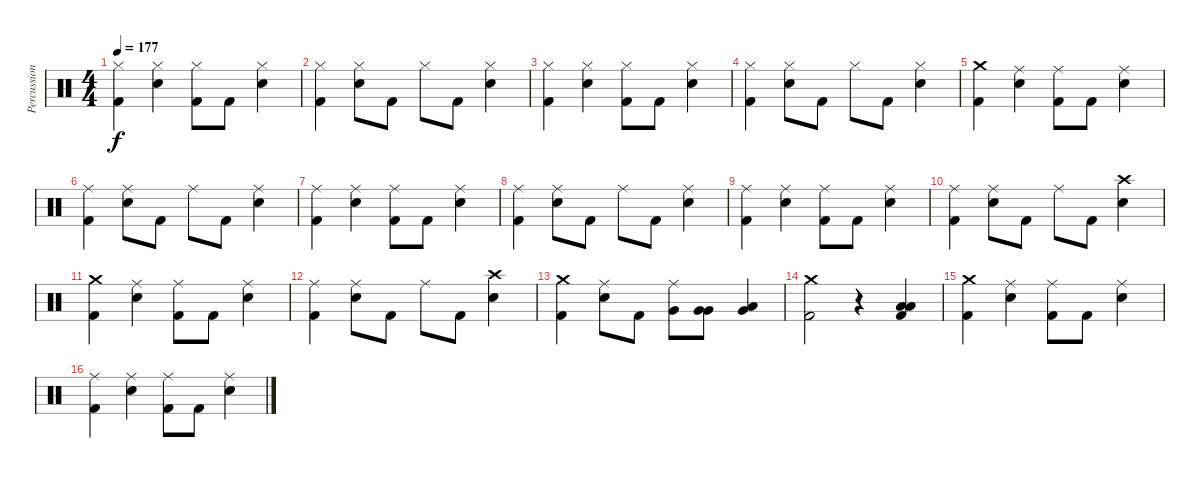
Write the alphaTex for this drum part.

\track ("Percussion" "Percussion") {instrument percussion}
\staff {score}
\articulation defaults
\ts (4 4)
\tempo 177
\clef neutral
\ks c
("Hi-Hat (closed)" "Kick (hit) 2").4{dy f} ("Hi-Hat (closed)" "Electric Snare (hit)").4 ("Hi-Hat (closed)" "Kick (hit) 2").8 "Kick (hit) 2".8 ("Hi-Hat (closed)" "Electric Snare (hit)").4 |
("Hi-Hat (closed)" "Kick (hit) 2").4 ("Hi-Hat (closed)" "Electric Snare (hit)").8 "Kick (hit) 2".8 "Hi-Hat (closed)".8 "Kick (hit) 2".8 ("Hi-Hat (closed)" "Electric Snare (hit)").4 |
("Hi-Hat (closed)" "Kick (hit) 2").4 ("Hi-Hat (closed)" "Electric Snare (hit)").4 ("Hi-Hat (closed)" "Kick (hit) 2").8 "Kick (hit) 2".8 ("Hi-Hat (closed)" "Electric Snare (hit)").4 |
("Hi-Hat (closed)" "Kick (hit) 2").4 ("Hi-Hat (closed)" "Electric Snare (hit)").8 "Kick (hit) 2".8 "Hi-Hat (closed)".8 "Kick (hit) 2".8 ("Hi-Hat (closed)" "Electric Snare (hit)").4 |
("Crash medium (hit)" "Kick (hit) 2").4 ("Ride (middle)" "Electric Snare (hit)").4 ("Ride (middle)" "Kick (hit) 2").8 "Kick (hit) 2".8 ("Ride (middle)" "Electric Snare (hit)").4 |
("Ride (middle)" "Kick (hit) 2").4 ("Ride (middle)" "Electric Snare (hit)").8 "Kick (hit) 2".8 "Ride (middle)".8 "Kick (hit) 2".8 ("Ride (middle)" "Electric Snare (hit)").4 |
("Ride (middle)" "Kick (hit) 2").4 ("Ride (middle)" "Electric Snare (hit)").4 ("Ride (middle)" "Kick (hit) 2").8 "Kick (hit) 2".8 ("Ride (middle)" "Electric Snare (hit)").4 |
("Ride (middle)" "Kick (hit) 2").4 ("Ride (middle)" "Electric Snare (hit)").8 "Kick (hit) 2".8 "Ride (middle)".8 "Kick (hit) 2".8 ("Ride (middle)" "Electric Snare (hit)").4 |
("Ride (middle)" "Kick (hit) 2").4 ("Ride (middle)" "Electric Snare (hit)").4 ("Ride (middle)" "Kick (hit) 2").8 "Kick (hit) 2".8 ("Ride (middle)" "Electric Snare (hit)").4 |
("Ride (middle)" "Kick (hit) 2").4 ("Ride (middle)" "Electric Snare (hit)").8 "Kick (hit) 2".8 "Ride (middle)".8 "Kick (hit) 2".8 ("Crash high (hit)" "Electric Snare (hit)").4 |
("Crash medium (hit)" "Kick (hit) 2").4 ("Ride (middle)" "Electric Snare (hit)").4 ("Ride (middle)" "Kick (hit) 2").8 "Kick (hit) 2".8 ("Ride (middle)" "Electric Snare (hit)").4 |
("Ride (middle)" "Kick (hit) 2").4 ("Ride (middle)" "Electric Snare (hit)").8 "Kick (hit) 2".8 "Ride (middle)".8 "Kick (hit) 2".8 ("Crash high (hit)" "Electric Snare (hit)").4 |
("Crash medium (hit)" "Kick (hit) 2").4 ("Ride (middle)" "Electric Snare (hit)").8 "Kick (hit) 2".8 ("Ride (middle)" "Very Low Tom (hit)").8 ("Very Low Tom (hit)" "Very Low Tom (hit)").8 ("Low Floor Tom (hit)" "Very Low Tom (hit)").4 |
("Crash medium (hit)" "Kick (hit) 2").2 r.4 ("Low Floor Tom (hit)" "Low Floor Tom (hit)" "Kick (hit) 2").4 |
("Crash medium (hit)" "Kick (hit) 2").4 ("Ride (middle)" "Electric Snare (hit)").4 ("Ride (middle)" "Kick (hit) 2").8 "Kick (hit) 2".8 ("Ride (middle)" "Electric Snare (hit)").4 |
("Ride (middle)" "Kick (hit) 2").4 ("Ride (middle)" "Electric Snare (hit)").4 ("Ride (middle)" "Kick (hit) 2").8 "Kick (hit) 2".8 ("Ride (middle)" "Electric Snare (hit)").4
